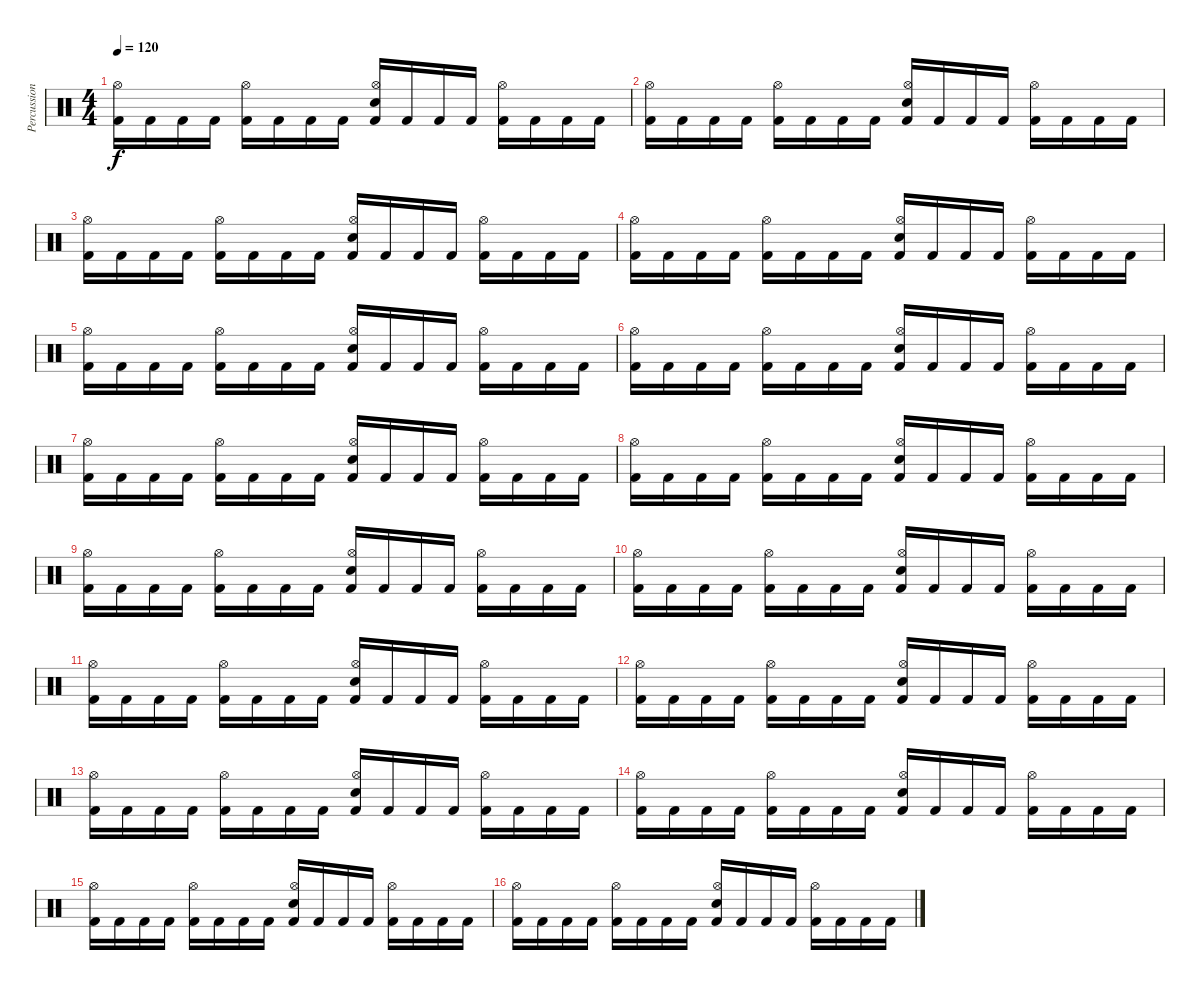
\track ("Percussion" "Percussion") {instrument percussion}
\staff {score}
\articulation defaults
\ts (4 4)
\tempo 120
\clef neutral
\ks c
("Kick (hit) 2" "Hi-Hat (open)").16{dy f} "Kick (hit) 2".16 "Kick (hit) 2".16 "Kick (hit) 2".16 ("Kick (hit) 2" "Hi-Hat (open)").16 "Kick (hit) 2".16 "Kick (hit) 2".16 "Kick (hit) 2".16 ("Kick (hit) 2" "Hi-Hat (open)" "Electric Snare (hit)").16 "Kick (hit) 2".16 "Kick (hit) 2".16 "Kick (hit) 2".16 ("Kick (hit) 2" "Hi-Hat (open)").16 "Kick (hit) 2".16 "Kick (hit) 2".16 "Kick (hit) 2".16 |
("Kick (hit) 2" "Hi-Hat (open)").16 "Kick (hit) 2".16 "Kick (hit) 2".16 "Kick (hit) 2".16 ("Kick (hit) 2" "Hi-Hat (open)").16 "Kick (hit) 2".16 "Kick (hit) 2".16 "Kick (hit) 2".16 ("Kick (hit) 2" "Hi-Hat (open)" "Electric Snare (hit)").16 "Kick (hit) 2".16 "Kick (hit) 2".16 "Kick (hit) 2".16 ("Kick (hit) 2" "Hi-Hat (open)").16 "Kick (hit) 2".16 "Kick (hit) 2".16 "Kick (hit) 2".16 |
("Kick (hit) 2" "Hi-Hat (open)").16 "Kick (hit) 2".16 "Kick (hit) 2".16 "Kick (hit) 2".16 ("Kick (hit) 2" "Hi-Hat (open)").16 "Kick (hit) 2".16 "Kick (hit) 2".16 "Kick (hit) 2".16 ("Kick (hit) 2" "Hi-Hat (open)" "Electric Snare (hit)").16 "Kick (hit) 2".16 "Kick (hit) 2".16 "Kick (hit) 2".16 ("Kick (hit) 2" "Hi-Hat (open)").16 "Kick (hit) 2".16 "Kick (hit) 2".16 "Kick (hit) 2".16 |
("Kick (hit) 2" "Hi-Hat (open)").16 "Kick (hit) 2".16 "Kick (hit) 2".16 "Kick (hit) 2".16 ("Kick (hit) 2" "Hi-Hat (open)").16 "Kick (hit) 2".16 "Kick (hit) 2".16 "Kick (hit) 2".16 ("Kick (hit) 2" "Hi-Hat (open)" "Electric Snare (hit)").16 "Kick (hit) 2".16 "Kick (hit) 2".16 "Kick (hit) 2".16 ("Kick (hit) 2" "Hi-Hat (open)").16 "Kick (hit) 2".16 "Kick (hit) 2".16 "Kick (hit) 2".16 |
("Kick (hit) 2" "Hi-Hat (open)").16 "Kick (hit) 2".16 "Kick (hit) 2".16 "Kick (hit) 2".16 ("Kick (hit) 2" "Hi-Hat (open)").16 "Kick (hit) 2".16 "Kick (hit) 2".16 "Kick (hit) 2".16 ("Kick (hit) 2" "Hi-Hat (open)" "Electric Snare (hit)").16 "Kick (hit) 2".16 "Kick (hit) 2".16 "Kick (hit) 2".16 ("Kick (hit) 2" "Hi-Hat (open)").16 "Kick (hit) 2".16 "Kick (hit) 2".16 "Kick (hit) 2".16 |
("Kick (hit) 2" "Hi-Hat (open)").16 "Kick (hit) 2".16 "Kick (hit) 2".16 "Kick (hit) 2".16 ("Kick (hit) 2" "Hi-Hat (open)").16 "Kick (hit) 2".16 "Kick (hit) 2".16 "Kick (hit) 2".16 ("Kick (hit) 2" "Hi-Hat (open)" "Electric Snare (hit)").16 "Kick (hit) 2".16 "Kick (hit) 2".16 "Kick (hit) 2".16 ("Kick (hit) 2" "Hi-Hat (open)").16 "Kick (hit) 2".16 "Kick (hit) 2".16 "Kick (hit) 2".16 |
("Kick (hit) 2" "Hi-Hat (open)").16 "Kick (hit) 2".16 "Kick (hit) 2".16 "Kick (hit) 2".16 ("Kick (hit) 2" "Hi-Hat (open)").16 "Kick (hit) 2".16 "Kick (hit) 2".16 "Kick (hit) 2".16 ("Kick (hit) 2" "Hi-Hat (open)" "Electric Snare (hit)").16 "Kick (hit) 2".16 "Kick (hit) 2".16 "Kick (hit) 2".16 ("Kick (hit) 2" "Hi-Hat (open)").16 "Kick (hit) 2".16 "Kick (hit) 2".16 "Kick (hit) 2".16 |
("Kick (hit) 2" "Hi-Hat (open)").16 "Kick (hit) 2".16 "Kick (hit) 2".16 "Kick (hit) 2".16 ("Kick (hit) 2" "Hi-Hat (open)").16 "Kick (hit) 2".16 "Kick (hit) 2".16 "Kick (hit) 2".16 ("Kick (hit) 2" "Hi-Hat (open)" "Electric Snare (hit)").16 "Kick (hit) 2".16 "Kick (hit) 2".16 "Kick (hit) 2".16 ("Kick (hit) 2" "Hi-Hat (open)").16 "Kick (hit) 2".16 "Kick (hit) 2".16 "Kick (hit) 2".16 |
("Kick (hit) 2" "Hi-Hat (open)").16 "Kick (hit) 2".16 "Kick (hit) 2".16 "Kick (hit) 2".16 ("Kick (hit) 2" "Hi-Hat (open)").16 "Kick (hit) 2".16 "Kick (hit) 2".16 "Kick (hit) 2".16 ("Kick (hit) 2" "Hi-Hat (open)" "Electric Snare (hit)").16 "Kick (hit) 2".16 "Kick (hit) 2".16 "Kick (hit) 2".16 ("Kick (hit) 2" "Hi-Hat (open)").16 "Kick (hit) 2".16 "Kick (hit) 2".16 "Kick (hit) 2".16 |
("Kick (hit) 2" "Hi-Hat (open)").16 "Kick (hit) 2".16 "Kick (hit) 2".16 "Kick (hit) 2".16 ("Kick (hit) 2" "Hi-Hat (open)").16 "Kick (hit) 2".16 "Kick (hit) 2".16 "Kick (hit) 2".16 ("Kick (hit) 2" "Hi-Hat (open)" "Electric Snare (hit)").16 "Kick (hit) 2".16 "Kick (hit) 2".16 "Kick (hit) 2".16 ("Kick (hit) 2" "Hi-Hat (open)").16 "Kick (hit) 2".16 "Kick (hit) 2".16 "Kick (hit) 2".16 |
("Kick (hit) 2" "Hi-Hat (open)").16 "Kick (hit) 2".16 "Kick (hit) 2".16 "Kick (hit) 2".16 ("Kick (hit) 2" "Hi-Hat (open)").16 "Kick (hit) 2".16 "Kick (hit) 2".16 "Kick (hit) 2".16 ("Kick (hit) 2" "Hi-Hat (open)" "Electric Snare (hit)").16 "Kick (hit) 2".16 "Kick (hit) 2".16 "Kick (hit) 2".16 ("Kick (hit) 2" "Hi-Hat (open)").16 "Kick (hit) 2".16 "Kick (hit) 2".16 "Kick (hit) 2".16 |
("Kick (hit) 2" "Hi-Hat (open)").16 "Kick (hit) 2".16 "Kick (hit) 2".16 "Kick (hit) 2".16 ("Kick (hit) 2" "Hi-Hat (open)").16 "Kick (hit) 2".16 "Kick (hit) 2".16 "Kick (hit) 2".16 ("Kick (hit) 2" "Hi-Hat (open)" "Electric Snare (hit)").16 "Kick (hit) 2".16 "Kick (hit) 2".16 "Kick (hit) 2".16 ("Kick (hit) 2" "Hi-Hat (open)").16 "Kick (hit) 2".16 "Kick (hit) 2".16 "Kick (hit) 2".16 |
("Kick (hit) 2" "Hi-Hat (open)").16 "Kick (hit) 2".16 "Kick (hit) 2".16 "Kick (hit) 2".16 ("Kick (hit) 2" "Hi-Hat (open)").16 "Kick (hit) 2".16 "Kick (hit) 2".16 "Kick (hit) 2".16 ("Kick (hit) 2" "Hi-Hat (open)" "Electric Snare (hit)").16 "Kick (hit) 2".16 "Kick (hit) 2".16 "Kick (hit) 2".16 ("Kick (hit) 2" "Hi-Hat (open)").16 "Kick (hit) 2".16 "Kick (hit) 2".16 "Kick (hit) 2".16 |
("Kick (hit) 2" "Hi-Hat (open)").16 "Kick (hit) 2".16 "Kick (hit) 2".16 "Kick (hit) 2".16 ("Kick (hit) 2" "Hi-Hat (open)").16 "Kick (hit) 2".16 "Kick (hit) 2".16 "Kick (hit) 2".16 ("Kick (hit) 2" "Hi-Hat (open)" "Electric Snare (hit)").16 "Kick (hit) 2".16 "Kick (hit) 2".16 "Kick (hit) 2".16 ("Kick (hit) 2" "Hi-Hat (open)").16 "Kick (hit) 2".16 "Kick (hit) 2".16 "Kick (hit) 2".16 |
("Kick (hit) 2" "Hi-Hat (open)").16 "Kick (hit) 2".16 "Kick (hit) 2".16 "Kick (hit) 2".16 ("Kick (hit) 2" "Hi-Hat (open)").16 "Kick (hit) 2".16 "Kick (hit) 2".16 "Kick (hit) 2".16 ("Kick (hit) 2" "Hi-Hat (open)" "Electric Snare (hit)").16 "Kick (hit) 2".16 "Kick (hit) 2".16 "Kick (hit) 2".16 ("Kick (hit) 2" "Hi-Hat (open)").16 "Kick (hit) 2".16 "Kick (hit) 2".16 "Kick (hit) 2".16 |
("Kick (hit) 2" "Hi-Hat (open)").16 "Kick (hit) 2".16 "Kick (hit) 2".16 "Kick (hit) 2".16 ("Kick (hit) 2" "Hi-Hat (open)").16 "Kick (hit) 2".16 "Kick (hit) 2".16 "Kick (hit) 2".16 ("Kick (hit) 2" "Hi-Hat (open)" "Electric Snare (hit)").16 "Kick (hit) 2".16 "Kick (hit) 2".16 "Kick (hit) 2".16 ("Kick (hit) 2" "Hi-Hat (open)").16 "Kick (hit) 2".16 "Kick (hit) 2".16 "Kick (hit) 2".16
